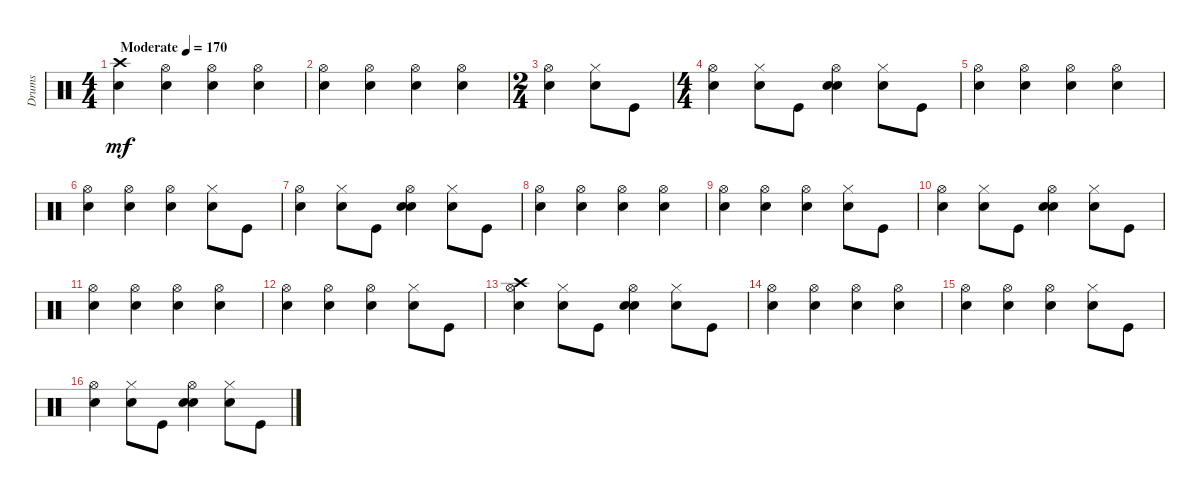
\track ("Drums" "Drums") {instrument percussion}
\staff {score}
\articulation defaults
\ts (4 4)
\tempo (170 "Moderate")
\clef neutral
\ks c
("Crash high (hit)" "Electric Snare (hit)").4{dy mf} ("Hi-Hat (open)" "Electric Snare (hit)").4 ("Hi-Hat (open)" "Electric Snare (hit)").4 ("Hi-Hat (open)" "Electric Snare (hit)").4 |
("Hi-Hat (open)" "Electric Snare (hit)").4 ("Hi-Hat (open)" "Electric Snare (hit)").4 ("Hi-Hat (open)" "Electric Snare (hit)").4 ("Hi-Hat (open)" "Electric Snare (hit)").4 |
\ts (2 4)
("Hi-Hat (open)" "Electric Snare (hit)").4 ("Hi-Hat (closed)" "Electric Snare (hit)").8 "Kick (hit)".8 |
\ts (4 4)
("Hi-Hat (open)" "Electric Snare (hit)").4 ("Hi-Hat (closed)" "Electric Snare (hit)").8 "Kick (hit)".8 ("Electric Snare (hit)" "Hi-Hat (open)" "Electric Snare (hit)").4 ("Hi-Hat (closed)" "Electric Snare (hit)").8 "Kick (hit)".8 |
("Hi-Hat (open)" "Electric Snare (hit)").4 ("Hi-Hat (open)" "Electric Snare (hit)").4 ("Hi-Hat (open)" "Electric Snare (hit)").4 ("Hi-Hat (open)" "Electric Snare (hit)").4 |
("Hi-Hat (open)" "Electric Snare (hit)").4 ("Hi-Hat (open)" "Electric Snare (hit)").4 ("Hi-Hat (open)" "Electric Snare (hit)").4 ("Hi-Hat (closed)" "Electric Snare (hit)").8 "Kick (hit)".8 |
("Hi-Hat (open)" "Electric Snare (hit)").4 ("Hi-Hat (closed)" "Electric Snare (hit)").8 "Kick (hit)".8 ("Electric Snare (hit)" "Hi-Hat (open)" "Electric Snare (hit)").4 ("Hi-Hat (closed)" "Electric Snare (hit)").8 "Kick (hit)".8 |
("Hi-Hat (open)" "Electric Snare (hit)").4 ("Hi-Hat (open)" "Electric Snare (hit)").4 ("Hi-Hat (open)" "Electric Snare (hit)").4 ("Hi-Hat (open)" "Electric Snare (hit)").4 |
("Hi-Hat (open)" "Electric Snare (hit)").4 ("Hi-Hat (open)" "Electric Snare (hit)").4 ("Hi-Hat (open)" "Electric Snare (hit)").4 ("Hi-Hat (closed)" "Electric Snare (hit)").8 "Kick (hit)".8 |
("Hi-Hat (open)" "Electric Snare (hit)").4 ("Hi-Hat (closed)" "Electric Snare (hit)").8 "Kick (hit)".8 ("Electric Snare (hit)" "Hi-Hat (open)" "Electric Snare (hit)").4 ("Hi-Hat (closed)" "Electric Snare (hit)").8 "Kick (hit)".8 |
("Hi-Hat (open)" "Electric Snare (hit)").4 ("Hi-Hat (open)" "Electric Snare (hit)").4 ("Hi-Hat (open)" "Electric Snare (hit)").4 ("Hi-Hat (open)" "Electric Snare (hit)").4 |
("Hi-Hat (open)" "Electric Snare (hit)").4 ("Hi-Hat (open)" "Electric Snare (hit)").4 ("Hi-Hat (open)" "Electric Snare (hit)").4 ("Hi-Hat (closed)" "Electric Snare (hit)").8 "Kick (hit)".8 |
("Crash high (hit)" "Hi-Hat (open)" "Electric Snare (hit)").4 ("Hi-Hat (closed)" "Electric Snare (hit)").8 "Kick (hit)".8 ("Electric Snare (hit)" "Hi-Hat (open)" "Electric Snare (hit)").4 ("Hi-Hat (closed)" "Electric Snare (hit)").8 "Kick (hit)".8 |
("Hi-Hat (open)" "Electric Snare (hit)").4 ("Hi-Hat (open)" "Electric Snare (hit)").4 ("Hi-Hat (open)" "Electric Snare (hit)").4 ("Hi-Hat (open)" "Electric Snare (hit)").4 |
("Hi-Hat (open)" "Electric Snare (hit)").4 ("Hi-Hat (open)" "Electric Snare (hit)").4 ("Hi-Hat (open)" "Electric Snare (hit)").4 ("Hi-Hat (closed)" "Electric Snare (hit)").8 "Kick (hit)".8 |
("Hi-Hat (open)" "Electric Snare (hit)").4 ("Hi-Hat (closed)" "Electric Snare (hit)").8 "Kick (hit)".8 ("Electric Snare (hit)" "Hi-Hat (open)" "Electric Snare (hit)").4 ("Hi-Hat (closed)" "Electric Snare (hit)").8 "Kick (hit)".8
